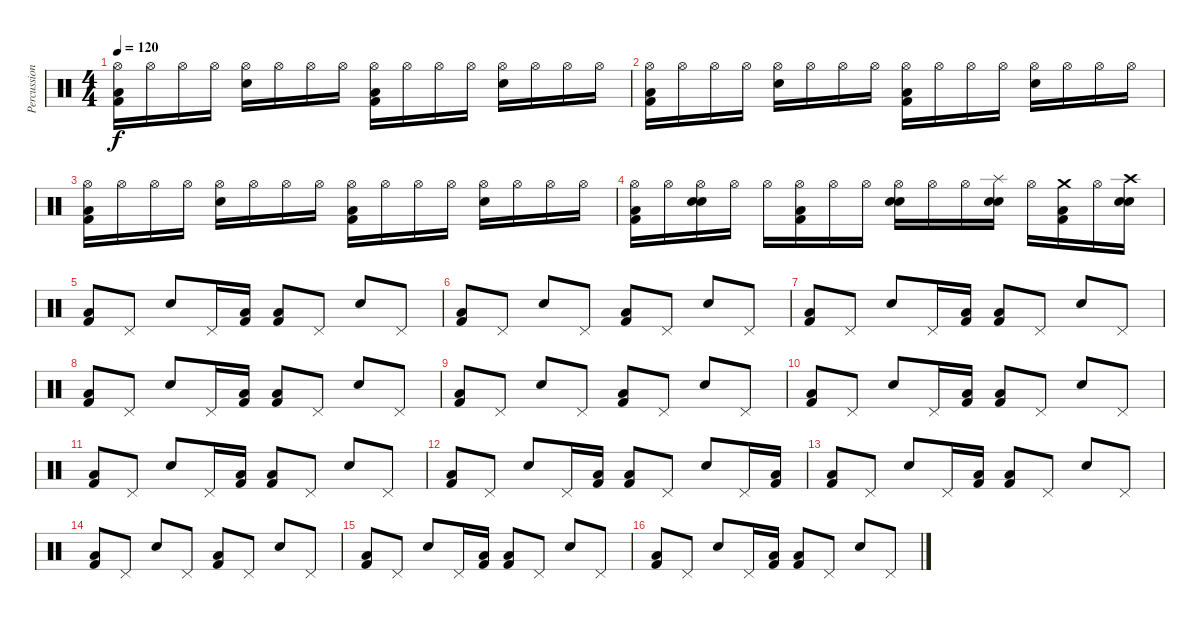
\track ("Percussions" "Percussion") {instrument percussion}
\staff {score}
\articulation defaults
\ts (4 4)
\tempo 120
\clef neutral
\ks c
("Hi-Hat (open)" "Kick (hit) 2" "Low Floor Tom (hit)").16{dy f} "Hi-Hat (open)".16 "Hi-Hat (open)".16 "Hi-Hat (open)".16 ("Hi-Hat (open)" "Snare (hit) 2").16 "Hi-Hat (open)".16 "Hi-Hat (open)".16 "Hi-Hat (open)".16 ("Hi-Hat (open)" "Kick (hit) 2" "Low Floor Tom (hit)").16 "Hi-Hat (open)".16 "Hi-Hat (open)".16 "Hi-Hat (open)".16 ("Hi-Hat (open)" "Snare (hit) 2").16 "Hi-Hat (open)".16 "Hi-Hat (open)".16 "Hi-Hat (open)".16 |
("Hi-Hat (open)" "Kick (hit) 2" "Low Floor Tom (hit)").16 "Hi-Hat (open)".16 "Hi-Hat (open)".16 "Hi-Hat (open)".16 ("Hi-Hat (open)" "Snare (hit) 2").16 "Hi-Hat (open)".16 "Hi-Hat (open)".16 "Hi-Hat (open)".16 ("Hi-Hat (open)" "Kick (hit) 2" "Low Floor Tom (hit)").16 "Hi-Hat (open)".16 "Hi-Hat (open)".16 "Hi-Hat (open)".16 ("Hi-Hat (open)" "Snare (hit) 2").16 "Hi-Hat (open)".16 "Hi-Hat (open)".16 "Hi-Hat (open)".16 |
("Hi-Hat (open)" "Kick (hit) 2" "Low Floor Tom (hit)").16 "Hi-Hat (open)".16 "Hi-Hat (open)".16 "Hi-Hat (open)".16 ("Hi-Hat (open)" "Snare (hit) 2").16 "Hi-Hat (open)".16 "Hi-Hat (open)".16 "Hi-Hat (open)".16 ("Hi-Hat (open)" "Kick (hit) 2" "Low Floor Tom (hit)").16 "Hi-Hat (open)".16 "Hi-Hat (open)".16 "Hi-Hat (open)".16 ("Hi-Hat (open)" "Snare (hit) 2").16 "Hi-Hat (open)".16 "Hi-Hat (open)".16 "Hi-Hat (open)".16 |
("Hi-Hat (open)" "Kick (hit) 2" "Low Floor Tom (hit)").16 "Hi-Hat (open)".16 ("Hi-Hat (open)" "Snare (hit) 2" "Electric Snare (hit)").16 "Hi-Hat (open)".16 "Hi-Hat (open)".16 ("Hi-Hat (open)" "Kick (hit) 2" "Low Floor Tom (hit)").16 "Hi-Hat (open)".16 "Hi-Hat (open)".16 ("Hi-Hat (open)" "Snare (hit) 2" "Electric Snare (hit)").16 "Hi-Hat (open)".16 "Hi-Hat (open)".16 ("Splash (hit)" "Snare (hit) 2" "Electric Snare (hit)").16 "Hi-Hat (open)".16 ("Crash medium (hit)" "Kick (hit) 2" "Low Floor Tom (hit)").16 "Hi-Hat (open)".16 ("Crash high (hit)" "Snare (hit) 2" "Electric Snare (hit)").16 |
("Kick (hit) 2" "Low Floor Tom (hit)").8 "Pedal Hi-Hat (hit)".8 "Snare (hit) 2".8 "Pedal Hi-Hat (hit)".16 ("Kick (hit) 2" "Low Floor Tom (hit)").16 ("Kick (hit) 2" "Low Floor Tom (hit)").8 "Pedal Hi-Hat (hit)".8 "Snare (hit) 2".8 "Pedal Hi-Hat (hit)".8 |
("Kick (hit) 2" "Low Floor Tom (hit)").8 "Pedal Hi-Hat (hit)".8 "Snare (hit) 2".8 "Pedal Hi-Hat (hit)".8 ("Kick (hit) 2" "Low Floor Tom (hit)").8 "Pedal Hi-Hat (hit)".8 "Snare (hit) 2".8 "Pedal Hi-Hat (hit)".8 |
("Kick (hit) 2" "Low Floor Tom (hit)").8 "Pedal Hi-Hat (hit)".8 "Snare (hit) 2".8 "Pedal Hi-Hat (hit)".16 ("Kick (hit) 2" "Low Floor Tom (hit)").16 ("Kick (hit) 2" "Low Floor Tom (hit)").8 "Pedal Hi-Hat (hit)".8 "Snare (hit) 2".8 "Pedal Hi-Hat (hit)".8 |
("Kick (hit) 2" "Low Floor Tom (hit)").8 "Pedal Hi-Hat (hit)".8 "Snare (hit) 2".8 "Pedal Hi-Hat (hit)".16 ("Kick (hit) 2" "Low Floor Tom (hit)").16 ("Kick (hit) 2" "Low Floor Tom (hit)").8 "Pedal Hi-Hat (hit)".8 "Snare (hit) 2".8 "Pedal Hi-Hat (hit)".8 |
("Kick (hit) 2" "Low Floor Tom (hit)").8 "Pedal Hi-Hat (hit)".8 "Snare (hit) 2".8 "Pedal Hi-Hat (hit)".8 ("Kick (hit) 2" "Low Floor Tom (hit)").8 "Pedal Hi-Hat (hit)".8 "Snare (hit) 2".8 "Pedal Hi-Hat (hit)".8 |
("Kick (hit) 2" "Low Floor Tom (hit)").8 "Pedal Hi-Hat (hit)".8 "Snare (hit) 2".8 "Pedal Hi-Hat (hit)".16 ("Kick (hit) 2" "Low Floor Tom (hit)").16 ("Kick (hit) 2" "Low Floor Tom (hit)").8 "Pedal Hi-Hat (hit)".8 "Snare (hit) 2".8 "Pedal Hi-Hat (hit)".8 |
("Kick (hit) 2" "Low Floor Tom (hit)").8 "Pedal Hi-Hat (hit)".8 "Snare (hit) 2".8 "Pedal Hi-Hat (hit)".16 ("Kick (hit) 2" "Low Floor Tom (hit)").16 ("Kick (hit) 2" "Low Floor Tom (hit)").8 "Pedal Hi-Hat (hit)".8 "Snare (hit) 2".8 "Pedal Hi-Hat (hit)".8 |
("Kick (hit) 2" "Low Floor Tom (hit)").8 "Pedal Hi-Hat (hit)".8 "Snare (hit) 2".8 "Pedal Hi-Hat (hit)".16 ("Kick (hit) 2" "Low Floor Tom (hit)").16 ("Kick (hit) 2" "Low Floor Tom (hit)").8 "Pedal Hi-Hat (hit)".8 "Snare (hit) 2".8 "Pedal Hi-Hat (hit)".16 ("Kick (hit) 2" "Low Floor Tom (hit)").16 |
("Kick (hit) 2" "Low Floor Tom (hit)").8 "Pedal Hi-Hat (hit)".8 "Snare (hit) 2".8 "Pedal Hi-Hat (hit)".16 ("Kick (hit) 2" "Low Floor Tom (hit)").16 ("Kick (hit) 2" "Low Floor Tom (hit)").8 "Pedal Hi-Hat (hit)".8 "Snare (hit) 2".8 "Pedal Hi-Hat (hit)".8 |
("Kick (hit) 2" "Low Floor Tom (hit)").8 "Pedal Hi-Hat (hit)".8 "Snare (hit) 2".8 "Pedal Hi-Hat (hit)".8 ("Kick (hit) 2" "Low Floor Tom (hit)").8 "Pedal Hi-Hat (hit)".8 "Snare (hit) 2".8 "Pedal Hi-Hat (hit)".8 |
("Kick (hit) 2" "Low Floor Tom (hit)").8 "Pedal Hi-Hat (hit)".8 "Snare (hit) 2".8 "Pedal Hi-Hat (hit)".16 ("Kick (hit) 2" "Low Floor Tom (hit)").16 ("Kick (hit) 2" "Low Floor Tom (hit)").8 "Pedal Hi-Hat (hit)".8 "Snare (hit) 2".8 "Pedal Hi-Hat (hit)".8 |
("Kick (hit) 2" "Low Floor Tom (hit)").8 "Pedal Hi-Hat (hit)".8 "Snare (hit) 2".8 "Pedal Hi-Hat (hit)".16 ("Kick (hit) 2" "Low Floor Tom (hit)").16 ("Kick (hit) 2" "Low Floor Tom (hit)").8 "Pedal Hi-Hat (hit)".8 "Snare (hit) 2".8 "Pedal Hi-Hat (hit)".8
